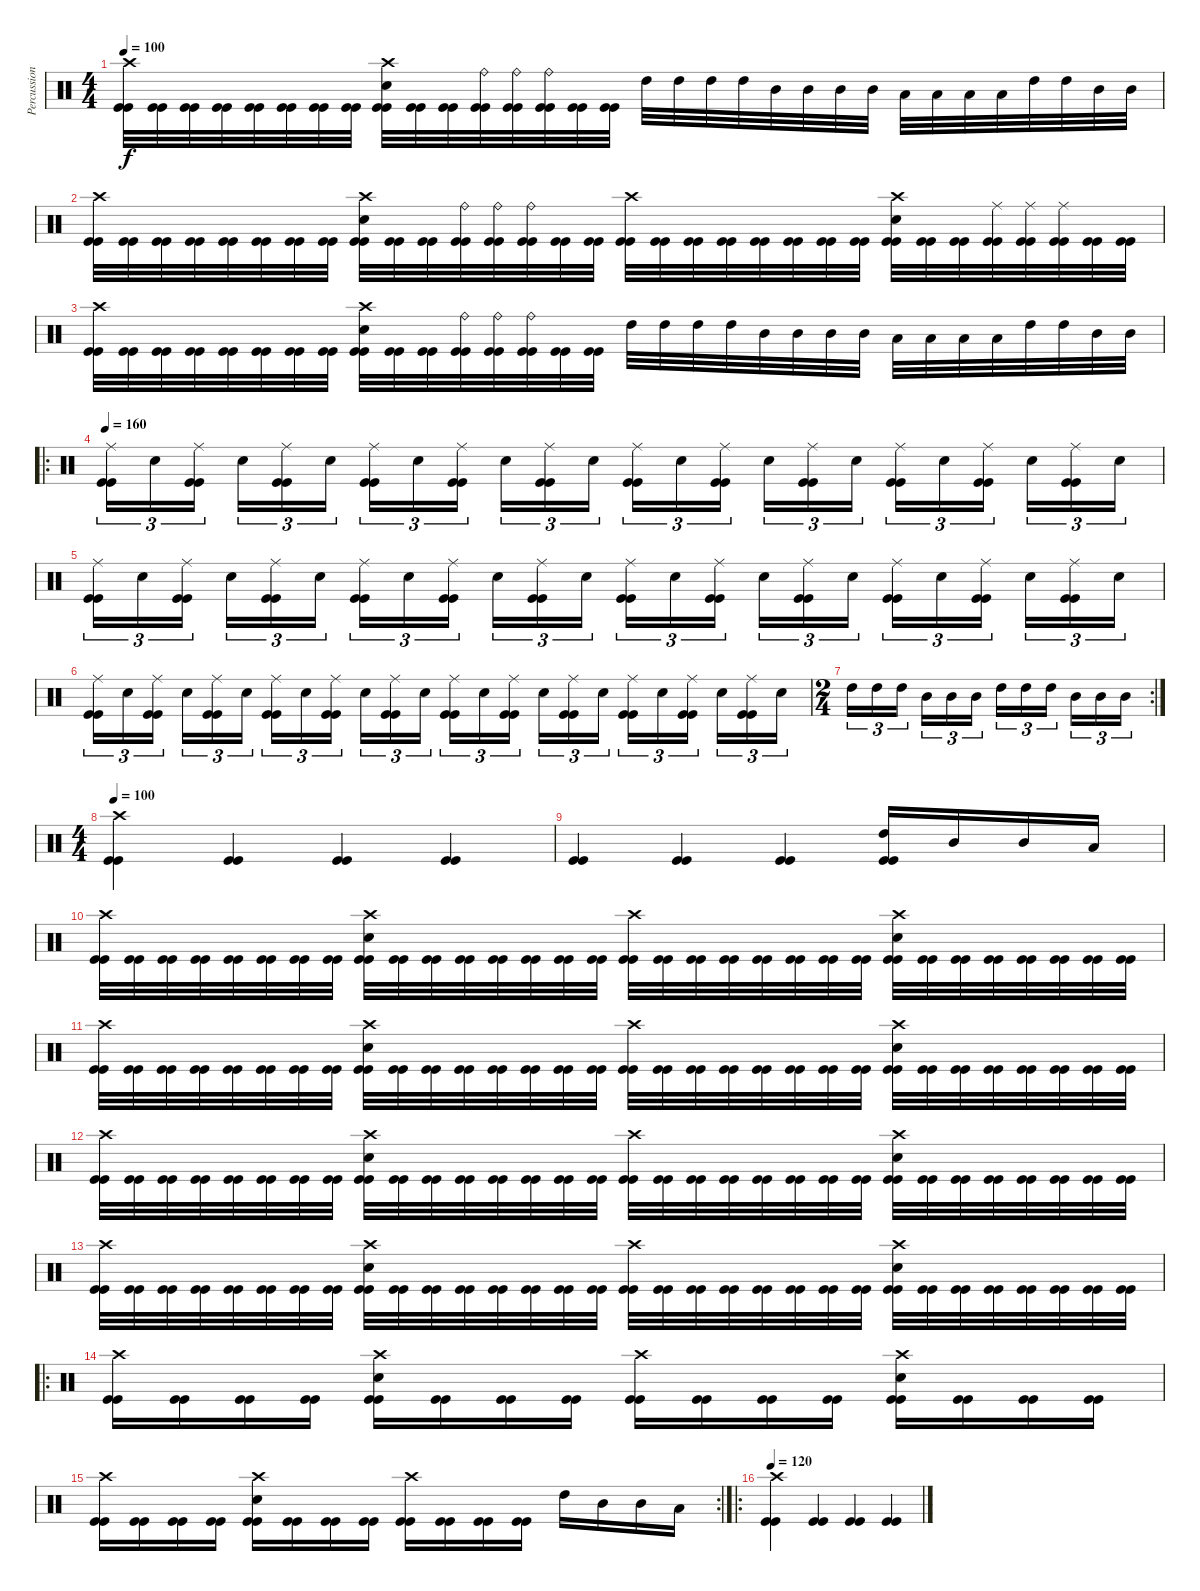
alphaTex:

\track ("Percussion" "Percussion") {instrument percussion}
\staff {score}
\articulation defaults
\ts (4 4)
\tempo 100
\clef neutral
\ks c
("Crash high (hit)" "Kick (hit)" "Kick (hit)").32{dy f} ("Kick (hit)" "Kick (hit)").32 ("Kick (hit)" "Kick (hit)").32 ("Kick (hit)" "Kick (hit)").32 ("Kick (hit)" "Kick (hit)").32 ("Kick (hit)" "Kick (hit)").32 ("Kick (hit)" "Kick (hit)").32 ("Kick (hit)" "Kick (hit)").32 ("Crash high (hit)" "Snare (hit) 2" "Kick (hit)" "Kick (hit)").32 ("Kick (hit)" "Kick (hit)").32 ("Kick (hit)" "Kick (hit)").32 ("Ride (bell)" "Kick (hit)" "Kick (hit)").32 ("Ride (bell)" "Kick (hit)" "Kick (hit)").32 ("Ride (bell)" "Kick (hit)" "Kick (hit)").32 ("Kick (hit)" "Kick (hit)").32 ("Kick (hit)" "Kick (hit)").32 "High Tom (hit)".32 "High Tom (hit)".32 "High Tom (hit)".32 "High Tom (hit)".32 "Mid Tom (hit)".32 "Mid Tom (hit)".32 "Mid Tom (hit)".32 "Mid Tom (hit)".32 "Low Tom (hit)".32 "Low Tom (hit)".32 "Low Tom (hit)".32 "Low Tom (hit)".32 "High Tom (hit)".32 "High Tom (hit)".32 "Mid Tom (hit)".32 "Mid Tom (hit)".32 |
("Crash high (hit)" "Kick (hit)" "Kick (hit)").32 ("Kick (hit)" "Kick (hit)").32 ("Kick (hit)" "Kick (hit)").32 ("Kick (hit)" "Kick (hit)").32 ("Kick (hit)" "Kick (hit)").32 ("Kick (hit)" "Kick (hit)").32 ("Kick (hit)" "Kick (hit)").32 ("Kick (hit)" "Kick (hit)").32 ("Crash high (hit)" "Snare (hit) 2" "Kick (hit)" "Kick (hit)").32 ("Kick (hit)" "Kick (hit)").32 ("Kick (hit)" "Kick (hit)").32 ("Ride (bell)" "Kick (hit)" "Kick (hit)").32 ("Ride (bell)" "Kick (hit)" "Kick (hit)").32 ("Ride (bell)" "Kick (hit)" "Kick (hit)").32 ("Kick (hit)" "Kick (hit)").32 ("Kick (hit)" "Kick (hit)").32 ("Crash high (hit)" "Kick (hit)" "Kick (hit)").32 ("Kick (hit)" "Kick (hit)").32 ("Kick (hit)" "Kick (hit)").32 ("Kick (hit)" "Kick (hit)").32 ("Kick (hit)" "Kick (hit)").32 ("Kick (hit)" "Kick (hit)").32 ("Kick (hit)" "Kick (hit)").32 ("Kick (hit)" "Kick (hit)").32 ("Crash high (hit)" "Snare (hit) 2" "Kick (hit)" "Kick (hit)").32 ("Kick (hit)" "Kick (hit)").32 ("Kick (hit)" "Kick (hit)").32 ("Ride (middle)" "Kick (hit)" "Kick (hit)").32 ("Ride (middle)" "Kick (hit)" "Kick (hit)").32 ("Ride (middle)" "Kick (hit)" "Kick (hit)").32 ("Kick (hit)" "Kick (hit)").32 ("Kick (hit)" "Kick (hit)").32 |
("Crash high (hit)" "Kick (hit)" "Kick (hit)").32 ("Kick (hit)" "Kick (hit)").32 ("Kick (hit)" "Kick (hit)").32 ("Kick (hit)" "Kick (hit)").32 ("Kick (hit)" "Kick (hit)").32 ("Kick (hit)" "Kick (hit)").32 ("Kick (hit)" "Kick (hit)").32 ("Kick (hit)" "Kick (hit)").32 ("Crash high (hit)" "Snare (hit) 2" "Kick (hit)" "Kick (hit)").32 ("Kick (hit)" "Kick (hit)").32 ("Kick (hit)" "Kick (hit)").32 ("Ride (bell)" "Kick (hit)" "Kick (hit)").32 ("Ride (bell)" "Kick (hit)" "Kick (hit)").32 ("Ride (bell)" "Kick (hit)" "Kick (hit)").32 ("Kick (hit)" "Kick (hit)").32 ("Kick (hit)" "Kick (hit)").32 "High Tom (hit)".32 "High Tom (hit)".32 "High Tom (hit)".32 "High Tom (hit)".32 "Mid Tom (hit)".32 "Mid Tom (hit)".32 "Mid Tom (hit)".32 "Mid Tom (hit)".32 "Low Tom (hit)".32 "Low Tom (hit)".32 "Low Tom (hit)".32 "Low Tom (hit)".32 "High Tom (hit)".32 "High Tom (hit)".32 "Mid Tom (hit)".32 "Mid Tom (hit)".32 |
\ro
\tempo 160
("Ride (middle)" "Kick (hit)" "Kick (hit)").16{tu (3 2)} "Snare (hit) 2".16{tu (3 2)} ("Ride (middle)" "Kick (hit)" "Kick (hit)").16{tu (3 2)} "Snare (hit) 2".16{tu (3 2)} ("Ride (middle)" "Kick (hit)" "Kick (hit)").16{tu (3 2)} "Snare (hit) 2".16{tu (3 2)} ("Ride (middle)" "Kick (hit)" "Kick (hit)").16{tu (3 2)} "Snare (hit) 2".16{tu (3 2)} ("Ride (middle)" "Kick (hit)" "Kick (hit)").16{tu (3 2)} "Snare (hit) 2".16{tu (3 2)} ("Ride (middle)" "Kick (hit)" "Kick (hit)").16{tu (3 2)} "Snare (hit) 2".16{tu (3 2)} ("Ride (middle)" "Kick (hit)" "Kick (hit)").16{tu (3 2)} "Snare (hit) 2".16{tu (3 2)} ("Ride (middle)" "Kick (hit)" "Kick (hit)").16{tu (3 2)} "Snare (hit) 2".16{tu (3 2)} ("Ride (middle)" "Kick (hit)" "Kick (hit)").16{tu (3 2)} "Snare (hit) 2".16{tu (3 2)} ("Ride (middle)" "Kick (hit)" "Kick (hit)").16{tu (3 2)} "Snare (hit) 2".16{tu (3 2)} ("Ride (middle)" "Kick (hit)" "Kick (hit)").16{tu (3 2)} "Snare (hit) 2".16{tu (3 2)} ("Ride (middle)" "Kick (hit)" "Kick (hit)").16{tu (3 2)} "Snare (hit) 2".16{tu (3 2)} |
("Ride (middle)" "Kick (hit)" "Kick (hit)").16{tu (3 2)} "Snare (hit) 2".16{tu (3 2)} ("Ride (middle)" "Kick (hit)" "Kick (hit)").16{tu (3 2)} "Snare (hit) 2".16{tu (3 2)} ("Ride (middle)" "Kick (hit)" "Kick (hit)").16{tu (3 2)} "Snare (hit) 2".16{tu (3 2)} ("Ride (middle)" "Kick (hit)" "Kick (hit)").16{tu (3 2)} "Snare (hit) 2".16{tu (3 2)} ("Ride (middle)" "Kick (hit)" "Kick (hit)").16{tu (3 2)} "Snare (hit) 2".16{tu (3 2)} ("Ride (middle)" "Kick (hit)" "Kick (hit)").16{tu (3 2)} "Snare (hit) 2".16{tu (3 2)} ("Ride (middle)" "Kick (hit)" "Kick (hit)").16{tu (3 2)} "Snare (hit) 2".16{tu (3 2)} ("Ride (middle)" "Kick (hit)" "Kick (hit)").16{tu (3 2)} "Snare (hit) 2".16{tu (3 2)} ("Ride (middle)" "Kick (hit)" "Kick (hit)").16{tu (3 2)} "Snare (hit) 2".16{tu (3 2)} ("Ride (middle)" "Kick (hit)" "Kick (hit)").16{tu (3 2)} "Snare (hit) 2".16{tu (3 2)} ("Ride (middle)" "Kick (hit)" "Kick (hit)").16{tu (3 2)} "Snare (hit) 2".16{tu (3 2)} ("Ride (middle)" "Kick (hit)" "Kick (hit)").16{tu (3 2)} "Snare (hit) 2".16{tu (3 2)} |
("Ride (middle)" "Kick (hit)" "Kick (hit)").16{tu (3 2)} "Snare (hit) 2".16{tu (3 2)} ("Ride (middle)" "Kick (hit)" "Kick (hit)").16{tu (3 2)} "Snare (hit) 2".16{tu (3 2)} ("Ride (middle)" "Kick (hit)" "Kick (hit)").16{tu (3 2)} "Snare (hit) 2".16{tu (3 2)} ("Ride (middle)" "Kick (hit)" "Kick (hit)").16{tu (3 2)} "Snare (hit) 2".16{tu (3 2)} ("Ride (middle)" "Kick (hit)" "Kick (hit)").16{tu (3 2)} "Snare (hit) 2".16{tu (3 2)} ("Ride (middle)" "Kick (hit)" "Kick (hit)").16{tu (3 2)} "Snare (hit) 2".16{tu (3 2)} ("Ride (middle)" "Kick (hit)" "Kick (hit)").16{tu (3 2)} "Snare (hit) 2".16{tu (3 2)} ("Ride (middle)" "Kick (hit)" "Kick (hit)").16{tu (3 2)} "Snare (hit) 2".16{tu (3 2)} ("Ride (middle)" "Kick (hit)" "Kick (hit)").16{tu (3 2)} "Snare (hit) 2".16{tu (3 2)} ("Ride (middle)" "Kick (hit)" "Kick (hit)").16{tu (3 2)} "Snare (hit) 2".16{tu (3 2)} ("Ride (middle)" "Kick (hit)" "Kick (hit)").16{tu (3 2)} "Snare (hit) 2".16{tu (3 2)} ("Ride (middle)" "Kick (hit)" "Kick (hit)").16{tu (3 2)} "Snare (hit) 2".16{tu (3 2)} |
\rc 2
\ts (2 4)
"High Tom (hit)".16{tu (3 2)} "High Tom (hit)".16{tu (3 2)} "High Tom (hit)".16{tu (3 2)} "Mid Tom (hit)".16{tu (3 2)} "Mid Tom (hit)".16{tu (3 2)} "Mid Tom (hit)".16{tu (3 2)} "High Tom (hit)".16{tu (3 2)} "High Tom (hit)".16{tu (3 2)} "High Tom (hit)".16{tu (3 2)} "Mid Tom (hit)".16{tu (3 2)} "Mid Tom (hit)".16{tu (3 2)} "Mid Tom (hit)".16{tu (3 2)} |
\ts (4 4)
\tempo 100
("Crash high (hit)" "Kick (hit)" "Kick (hit)").4 ("Kick (hit)" "Kick (hit)").4 ("Kick (hit)" "Kick (hit)").4 ("Kick (hit)" "Kick (hit)").4 |
("Kick (hit)" "Kick (hit)").4 ("Kick (hit)" "Kick (hit)").4 ("Kick (hit)" "Kick (hit)").4 ("High Tom (hit)" "Kick (hit)" "Kick (hit)").16 "Mid Tom (hit)".16 "Mid Tom (hit)".16 "Low Tom (hit)".16 |
("Crash high (hit)" "Kick (hit)" "Kick (hit)").32 ("Kick (hit)" "Kick (hit)").32 ("Kick (hit)" "Kick (hit)").32 ("Kick (hit)" "Kick (hit)").32 ("Kick (hit)" "Kick (hit)").32 ("Kick (hit)" "Kick (hit)").32 ("Kick (hit)" "Kick (hit)").32 ("Kick (hit)" "Kick (hit)").32 ("Crash high (hit)" "Snare (hit) 2" "Kick (hit)" "Kick (hit)").32 ("Kick (hit)" "Kick (hit)").32 ("Kick (hit)" "Kick (hit)").32 ("Kick (hit)" "Kick (hit)").32 ("Kick (hit)" "Kick (hit)").32 ("Kick (hit)" "Kick (hit)").32 ("Kick (hit)" "Kick (hit)").32 ("Kick (hit)" "Kick (hit)").32 ("Crash high (hit)" "Kick (hit)" "Kick (hit)").32 ("Kick (hit)" "Kick (hit)").32 ("Kick (hit)" "Kick (hit)").32 ("Kick (hit)" "Kick (hit)").32 ("Kick (hit)" "Kick (hit)").32 ("Kick (hit)" "Kick (hit)").32 ("Kick (hit)" "Kick (hit)").32 ("Kick (hit)" "Kick (hit)").32 ("Crash high (hit)" "Snare (hit) 2" "Kick (hit)" "Kick (hit)").32 ("Kick (hit)" "Kick (hit)").32 ("Kick (hit)" "Kick (hit)").32 ("Kick (hit)" "Kick (hit)").32 ("Kick (hit)" "Kick (hit)").32 ("Kick (hit)" "Kick (hit)").32 ("Kick (hit)" "Kick (hit)").32 ("Kick (hit)" "Kick (hit)").32 |
("Crash high (hit)" "Kick (hit)" "Kick (hit)").32 ("Kick (hit)" "Kick (hit)").32 ("Kick (hit)" "Kick (hit)").32 ("Kick (hit)" "Kick (hit)").32 ("Kick (hit)" "Kick (hit)").32 ("Kick (hit)" "Kick (hit)").32 ("Kick (hit)" "Kick (hit)").32 ("Kick (hit)" "Kick (hit)").32 ("Crash high (hit)" "Snare (hit) 2" "Kick (hit)" "Kick (hit)").32 ("Kick (hit)" "Kick (hit)").32 ("Kick (hit)" "Kick (hit)").32 ("Kick (hit)" "Kick (hit)").32 ("Kick (hit)" "Kick (hit)").32 ("Kick (hit)" "Kick (hit)").32 ("Kick (hit)" "Kick (hit)").32 ("Kick (hit)" "Kick (hit)").32 ("Crash high (hit)" "Kick (hit)" "Kick (hit)").32 ("Kick (hit)" "Kick (hit)").32 ("Kick (hit)" "Kick (hit)").32 ("Kick (hit)" "Kick (hit)").32 ("Kick (hit)" "Kick (hit)").32 ("Kick (hit)" "Kick (hit)").32 ("Kick (hit)" "Kick (hit)").32 ("Kick (hit)" "Kick (hit)").32 ("Crash high (hit)" "Snare (hit) 2" "Kick (hit)" "Kick (hit)").32 ("Kick (hit)" "Kick (hit)").32 ("Kick (hit)" "Kick (hit)").32 ("Kick (hit)" "Kick (hit)").32 ("Kick (hit)" "Kick (hit)").32 ("Kick (hit)" "Kick (hit)").32 ("Kick (hit)" "Kick (hit)").32 ("Kick (hit)" "Kick (hit)").32 |
("Crash high (hit)" "Kick (hit)" "Kick (hit)").32 ("Kick (hit)" "Kick (hit)").32 ("Kick (hit)" "Kick (hit)").32 ("Kick (hit)" "Kick (hit)").32 ("Kick (hit)" "Kick (hit)").32 ("Kick (hit)" "Kick (hit)").32 ("Kick (hit)" "Kick (hit)").32 ("Kick (hit)" "Kick (hit)").32 ("Crash high (hit)" "Snare (hit) 2" "Kick (hit)" "Kick (hit)").32 ("Kick (hit)" "Kick (hit)").32 ("Kick (hit)" "Kick (hit)").32 ("Kick (hit)" "Kick (hit)").32 ("Kick (hit)" "Kick (hit)").32 ("Kick (hit)" "Kick (hit)").32 ("Kick (hit)" "Kick (hit)").32 ("Kick (hit)" "Kick (hit)").32 ("Crash high (hit)" "Kick (hit)" "Kick (hit)").32 ("Kick (hit)" "Kick (hit)").32 ("Kick (hit)" "Kick (hit)").32 ("Kick (hit)" "Kick (hit)").32 ("Kick (hit)" "Kick (hit)").32 ("Kick (hit)" "Kick (hit)").32 ("Kick (hit)" "Kick (hit)").32 ("Kick (hit)" "Kick (hit)").32 ("Crash high (hit)" "Snare (hit) 2" "Kick (hit)" "Kick (hit)").32 ("Kick (hit)" "Kick (hit)").32 ("Kick (hit)" "Kick (hit)").32 ("Kick (hit)" "Kick (hit)").32 ("Kick (hit)" "Kick (hit)").32 ("Kick (hit)" "Kick (hit)").32 ("Kick (hit)" "Kick (hit)").32 ("Kick (hit)" "Kick (hit)").32 |
("Crash high (hit)" "Kick (hit)" "Kick (hit)").32 ("Kick (hit)" "Kick (hit)").32 ("Kick (hit)" "Kick (hit)").32 ("Kick (hit)" "Kick (hit)").32 ("Kick (hit)" "Kick (hit)").32 ("Kick (hit)" "Kick (hit)").32 ("Kick (hit)" "Kick (hit)").32 ("Kick (hit)" "Kick (hit)").32 ("Crash high (hit)" "Snare (hit) 2" "Kick (hit)" "Kick (hit)").32 ("Kick (hit)" "Kick (hit)").32 ("Kick (hit)" "Kick (hit)").32 ("Kick (hit)" "Kick (hit)").32 ("Kick (hit)" "Kick (hit)").32 ("Kick (hit)" "Kick (hit)").32 ("Kick (hit)" "Kick (hit)").32 ("Kick (hit)" "Kick (hit)").32 ("Crash high (hit)" "Kick (hit)" "Kick (hit)").32 ("Kick (hit)" "Kick (hit)").32 ("Kick (hit)" "Kick (hit)").32 ("Kick (hit)" "Kick (hit)").32 ("Kick (hit)" "Kick (hit)").32 ("Kick (hit)" "Kick (hit)").32 ("Kick (hit)" "Kick (hit)").32 ("Kick (hit)" "Kick (hit)").32 ("Crash high (hit)" "Snare (hit) 2" "Kick (hit)" "Kick (hit)").32 ("Kick (hit)" "Kick (hit)").32 ("Kick (hit)" "Kick (hit)").32 ("Kick (hit)" "Kick (hit)").32 ("Kick (hit)" "Kick (hit)").32 ("Kick (hit)" "Kick (hit)").32 ("Kick (hit)" "Kick (hit)").32 ("Kick (hit)" "Kick (hit)").32 |
\ro
("Crash high (hit)" "Kick (hit)" "Kick (hit)").16 ("Kick (hit)" "Kick (hit)").16 ("Kick (hit)" "Kick (hit)").16 ("Kick (hit)" "Kick (hit)").16 ("Crash high (hit)" "Snare (hit) 2" "Kick (hit)" "Kick (hit)").16 ("Kick (hit)" "Kick (hit)").16 ("Kick (hit)" "Kick (hit)").16 ("Kick (hit)" "Kick (hit)").16 ("Crash high (hit)" "Kick (hit)" "Kick (hit)").16 ("Kick (hit)" "Kick (hit)").16 ("Kick (hit)" "Kick (hit)").16 ("Kick (hit)" "Kick (hit)").16 ("Crash high (hit)" "Snare (hit) 2" "Kick (hit)" "Kick (hit)").16 ("Kick (hit)" "Kick (hit)").16 ("Kick (hit)" "Kick (hit)").16 ("Kick (hit)" "Kick (hit)").16 |
\rc 2
("Crash high (hit)" "Kick (hit)" "Kick (hit)").16 ("Kick (hit)" "Kick (hit)").16 ("Kick (hit)" "Kick (hit)").16 ("Kick (hit)" "Kick (hit)").16 ("Crash high (hit)" "Snare (hit) 2" "Kick (hit)" "Kick (hit)").16 ("Kick (hit)" "Kick (hit)").16 ("Kick (hit)" "Kick (hit)").16 ("Kick (hit)" "Kick (hit)").16 ("Crash high (hit)" "Kick (hit)" "Kick (hit)").16 ("Kick (hit)" "Kick (hit)").16 ("Kick (hit)" "Kick (hit)").16 ("Kick (hit)" "Kick (hit)").16 "High Tom (hit)".16 "Mid Tom (hit)".16 "Mid Tom (hit)".16 "Low Tom (hit)".16 |
\ro
\tempo 120
("Crash high (hit)" "Kick (hit)" "Kick (hit)").4 ("Kick (hit)" "Kick (hit)").4 ("Kick (hit)" "Kick (hit)").4 ("Kick (hit)" "Kick (hit)").4
